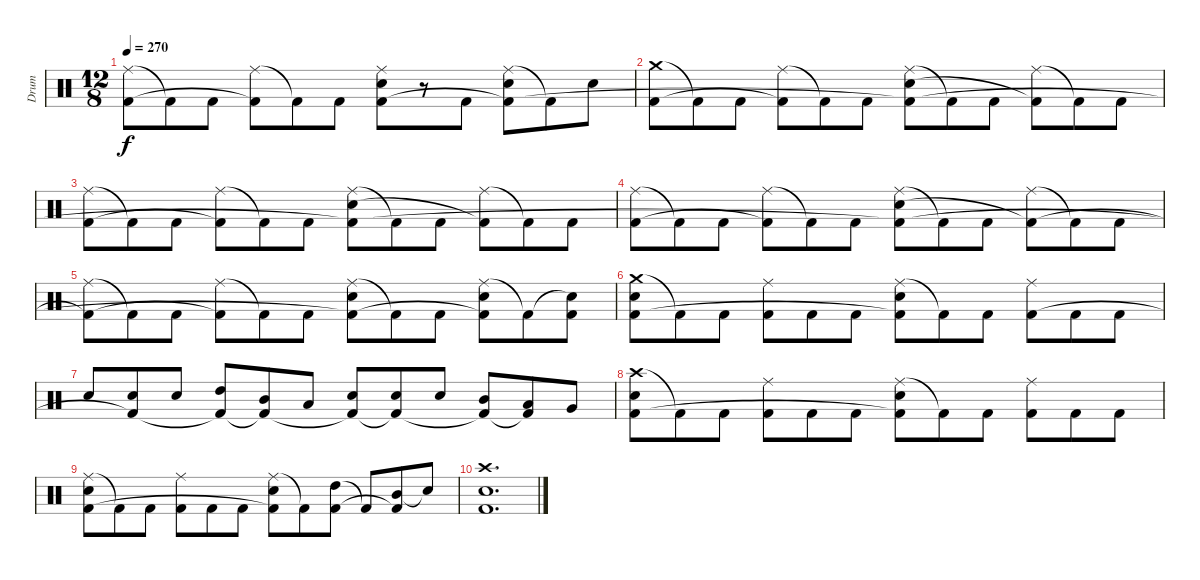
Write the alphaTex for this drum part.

\track ("Drum" "Drum") {instrument percussion}
\staff {score}
\articulation defaults
\ts (12 8)
\tempo 270
\clef neutral
\ks c
("Ride (middle)" "Kick (hit) 2"{t}).8{dy f} "Kick (hit) 2"{t}.8 "Kick (hit) 2".8 ("Ride (middle)" "Kick (hit) 2"{t}).8 "Kick (hit) 2"{t}.8 "Kick (hit) 2".8 ("Ride (middle)" "Electric Snare (hit)" "Kick (hit) 2"{t}).8 r.8 "Kick (hit) 2".8 ("Ride (middle)" "Electric Snare (hit)" "Kick (hit) 2"{t}).8 "Kick (hit) 2"{t}.8 "Electric Snare (hit)".8 |
("Crash medium (hit)" "Kick (hit) 2").8 "Kick (hit) 2"{t}.8 "Kick (hit) 2".8 ("Ride (middle)" "Kick (hit) 2"{t}).8 "Kick (hit) 2"{t}.8 "Kick (hit) 2".8 ("Ride (middle)" "Electric Snare (hit)" "Kick (hit) 2"{t}).8 "Kick (hit) 2"{t}.8 "Kick (hit) 2".8 ("Ride (middle)" "Kick (hit) 2"{t}).8 "Kick (hit) 2"{t}.8 "Kick (hit) 2".8 |
("Ride (middle)" "Kick (hit) 2").8 "Kick (hit) 2"{t}.8 "Kick (hit) 2".8 ("Ride (middle)" "Kick (hit) 2"{t}).8 "Kick (hit) 2"{t}.8 "Kick (hit) 2".8 ("Ride (middle)" "Electric Snare (hit)" "Kick (hit) 2"{t}).8 "Kick (hit) 2"{t}.8 "Kick (hit) 2".8 ("Ride (middle)" "Kick (hit) 2"{t}).8 "Kick (hit) 2"{t}.8 "Kick (hit) 2".8 |
("Ride (middle)" "Kick (hit) 2").8 "Kick (hit) 2"{t}.8 "Kick (hit) 2".8 ("Ride (middle)" "Kick (hit) 2"{t}).8 "Kick (hit) 2"{t}.8 "Kick (hit) 2".8 ("Ride (middle)" "Electric Snare (hit)" "Kick (hit) 2"{t}).8 "Kick (hit) 2"{t}.8 "Kick (hit) 2".8 ("Ride (middle)" "Kick (hit) 2"{t}).8 "Kick (hit) 2"{t}.8 "Kick (hit) 2".8 |
("Ride (middle)" "Kick (hit) 2"{t}).8 "Kick (hit) 2"{t}.8 "Kick (hit) 2".8 ("Ride (middle)" "Kick (hit) 2"{t}).8 "Kick (hit) 2"{t}.8 "Kick (hit) 2".8 ("Ride (middle)" "Electric Snare (hit)" "Kick (hit) 2"{t}).8 "Kick (hit) 2"{t}.8 "Kick (hit) 2".8 ("Ride (middle)" "Electric Snare (hit)" "Kick (hit) 2"{t}).8 "Kick (hit) 2"{t}.8 ("Snare (hit)"{t} "Kick (hit) 2").8 |
("Crash medium (hit)" "Electric Snare (hit)" "Kick (hit) 2").8 "Kick (hit) 2"{t}.8 "Kick (hit) 2".8 ("Ride (middle)" "Kick (hit) 2").8 "Kick (hit) 2".8 "Kick (hit) 2".8 ("Ride (middle)" "Electric Snare (hit)" "Kick (hit) 2"{t}).8 "Kick (hit) 2"{t}.8 "Kick (hit) 2".8 ("Ride (middle)" "Kick (hit) 2").8 "Kick (hit) 2".8 "Kick (hit) 2".8 |
"Electric Snare (hit)".8 ("Electric Snare (hit)" "Kick (hit) 2"{t}).8 "Electric Snare (hit)".8 ("High Tom (hit)" "Kick (hit) 2"{t}).8 ("Mid Tom (hit)" "Kick (hit) 2"{t}).8 "Low Tom (hit)".8 ("Electric Snare (hit)" "Kick (hit) 2"{t}).8 ("Electric Snare (hit)" "Kick (hit) 2"{t}).8 "Electric Snare (hit)".8 ("Mid Tom (hit)" "Kick (hit) 2"{t}).8 ("Low Tom (hit)" "Kick (hit) 2"{t}).8 "Very Low Tom (hit)".8 |
("Crash high (hit)" "Electric Snare (hit)" "Kick (hit) 2").8 "Kick (hit) 2"{t}.8 "Kick (hit) 2".8 ("Ride (middle)" "Kick (hit) 2").8 "Kick (hit) 2".8 "Kick (hit) 2".8 ("Ride (middle)" "Electric Snare (hit)" "Kick (hit) 2"{t}).8 "Kick (hit) 2"{t}.8 "Kick (hit) 2".8 ("Ride (middle)" "Kick (hit) 2").8 "Kick (hit) 2".8 "Kick (hit) 2".8 |
("Ride (middle)" "Electric Snare (hit)" "Kick (hit) 2").8 "Kick (hit) 2"{t}.8 "Kick (hit) 2".8 ("Ride (middle)" "Kick (hit) 2").8 "Kick (hit) 2".8 "Kick (hit) 2".8 ("Ride (middle)" "Electric Snare (hit)" "Kick (hit) 2"{t}).8 "Kick (hit) 2"{t}.8 ("High Tom (hit)" "Kick (hit) 2").8 "Kick (hit) 2"{t}.8 ("Mid Tom (hit)" "Kick (hit) 2"{t}).8 "Snare (hit)"{t}.8 |
("Crash high (hit)" "Electric Snare (hit)" "Kick (hit) 2").1{d}
